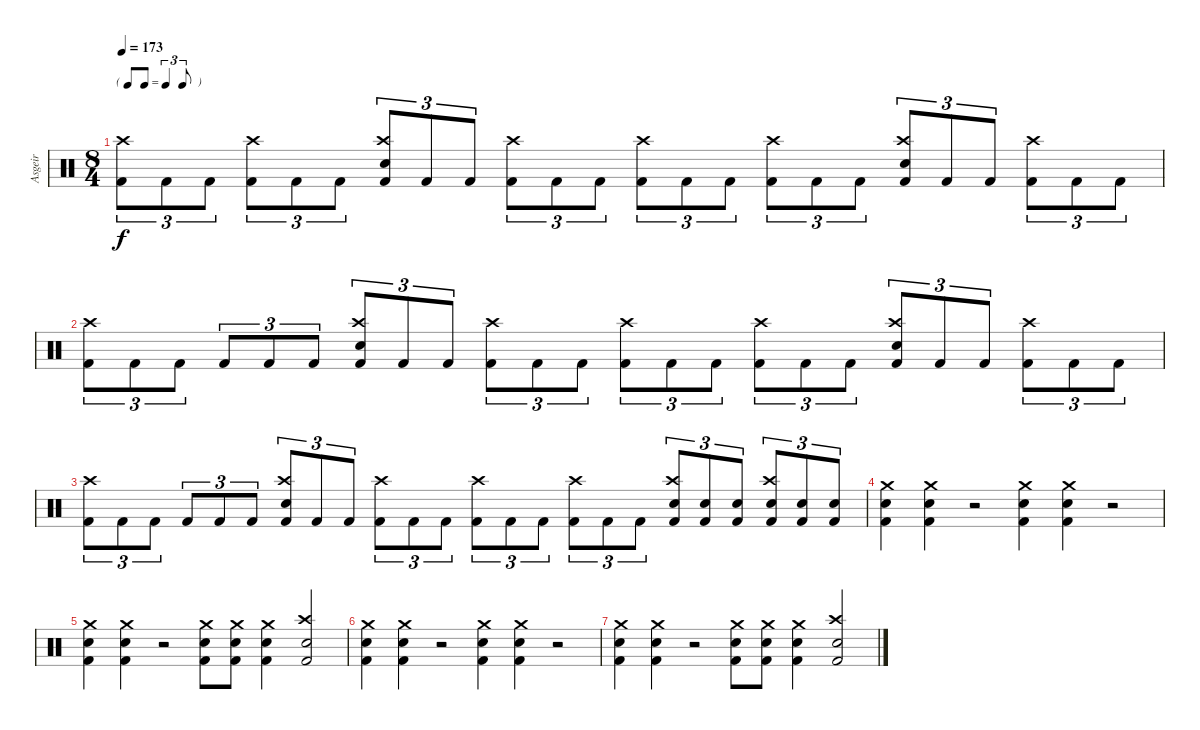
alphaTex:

\track ("Asgeir" "Asgeir") {instrument percussion}
\staff {score}
\articulation defaults
\ts (8 4)
\tf triplet8th
\tempo 173
\clef neutral
\ks c
("Kick (hit) 2" "Crash high (hit)").8{tu (3 2) dy f} "Kick (hit) 2".8{tu (3 2)} "Kick (hit) 2".8{tu (3 2)} ("Kick (hit) 2" "Crash high (hit)").8{tu (3 2)} "Kick (hit) 2".8{tu (3 2)} "Kick (hit) 2".8{tu (3 2)} ("Kick (hit) 2" "Snare (hit) 2" "Crash high (hit)").8{tu (3 2)} "Kick (hit) 2".8{tu (3 2)} "Kick (hit) 2".8{tu (3 2)} ("Kick (hit) 2" "Crash high (hit)").8{tu (3 2)} "Kick (hit) 2".8{tu (3 2)} "Kick (hit) 2".8{tu (3 2)} ("Kick (hit) 2" "Crash high (hit)").8{tu (3 2)} "Kick (hit) 2".8{tu (3 2)} "Kick (hit) 2".8{tu (3 2)} ("Kick (hit) 2" "Crash high (hit)").8{tu (3 2)} "Kick (hit) 2".8{tu (3 2)} "Kick (hit) 2".8{tu (3 2)} ("Kick (hit) 2" "Snare (hit) 2" "Crash high (hit)").8{tu (3 2)} "Kick (hit) 2".8{tu (3 2)} "Kick (hit) 2".8{tu (3 2)} ("Kick (hit) 2" "Crash high (hit)").8{tu (3 2)} "Kick (hit) 2".8{tu (3 2)} "Kick (hit) 2".8{tu (3 2)} |
("Kick (hit) 2" "Crash high (hit)").8{tu (3 2)} "Kick (hit) 2".8{tu (3 2)} "Kick (hit) 2".8{tu (3 2)} "Kick (hit) 2".8{tu (3 2)} "Kick (hit) 2".8{tu (3 2)} "Kick (hit) 2".8{tu (3 2)} ("Kick (hit) 2" "Snare (hit) 2" "Crash high (hit)").8{tu (3 2)} "Kick (hit) 2".8{tu (3 2)} "Kick (hit) 2".8{tu (3 2)} ("Kick (hit) 2" "Crash high (hit)").8{tu (3 2)} "Kick (hit) 2".8{tu (3 2)} "Kick (hit) 2".8{tu (3 2)} ("Kick (hit) 2" "Crash high (hit)").8{tu (3 2)} "Kick (hit) 2".8{tu (3 2)} "Kick (hit) 2".8{tu (3 2)} ("Kick (hit) 2" "Crash high (hit)").8{tu (3 2)} "Kick (hit) 2".8{tu (3 2)} "Kick (hit) 2".8{tu (3 2)} ("Kick (hit) 2" "Snare (hit) 2" "Crash high (hit)").8{tu (3 2)} "Kick (hit) 2".8{tu (3 2)} "Kick (hit) 2".8{tu (3 2)} ("Kick (hit) 2" "Crash high (hit)").8{tu (3 2)} "Kick (hit) 2".8{tu (3 2)} "Kick (hit) 2".8{tu (3 2)} |
("Kick (hit) 2" "Crash high (hit)").8{tu (3 2)} "Kick (hit) 2".8{tu (3 2)} "Kick (hit) 2".8{tu (3 2)} "Kick (hit) 2".8{tu (3 2)} "Kick (hit) 2".8{tu (3 2)} "Kick (hit) 2".8{tu (3 2)} ("Kick (hit) 2" "Snare (hit) 2" "Crash high (hit)").8{tu (3 2)} "Kick (hit) 2".8{tu (3 2)} "Kick (hit) 2".8{tu (3 2)} ("Kick (hit) 2" "Crash high (hit)").8{tu (3 2)} "Kick (hit) 2".8{tu (3 2)} "Kick (hit) 2".8{tu (3 2)} ("Kick (hit) 2" "Crash high (hit)").8{tu (3 2)} "Kick (hit) 2".8{tu (3 2)} "Kick (hit) 2".8{tu (3 2)} ("Kick (hit) 2" "Crash high (hit)").8{tu (3 2)} "Kick (hit) 2".8{tu (3 2)} "Kick (hit) 2".8{tu (3 2)} ("Kick (hit) 2" "Snare (hit) 2" "Crash high (hit)").8{tu (3 2)} ("Kick (hit) 2" "Snare (hit) 2").8{tu (3 2)} ("Kick (hit) 2" "Snare (hit) 2").8{tu (3 2)} ("Kick (hit) 2" "Snare (hit) 2" "Crash high (hit)").8{tu (3 2)} ("Kick (hit) 2" "Snare (hit) 2").8{tu (3 2)} ("Kick (hit) 2" "Snare (hit) 2").8{tu (3 2)} |
("Kick (hit) 2" "Snare (hit) 2" "Crash medium (hit)").4 ("Kick (hit) 2" "Snare (hit) 2" "Crash medium (hit)").4 r.2 ("Kick (hit) 2" "Snare (hit) 2" "Crash medium (hit)").4 ("Kick (hit) 2" "Snare (hit) 2" "Crash medium (hit)").4 r.2 |
("Kick (hit) 2" "Snare (hit) 2" "Crash medium (hit)").4 ("Kick (hit) 2" "Snare (hit) 2" "Crash medium (hit)").4 r.2 ("Kick (hit) 2" "Snare (hit) 2" "Crash medium (hit)").8 ("Kick (hit) 2" "Snare (hit) 2" "Crash medium (hit)").8 ("Kick (hit) 2" "Snare (hit) 2" "Crash medium (hit)").4 ("Kick (hit) 2" "Snare (hit) 2" "Crash high (hit)").2 |
("Kick (hit) 2" "Snare (hit) 2" "Crash medium (hit)").4 ("Kick (hit) 2" "Snare (hit) 2" "Crash medium (hit)").4 r.2 ("Kick (hit) 2" "Snare (hit) 2" "Crash medium (hit)").4 ("Kick (hit) 2" "Snare (hit) 2" "Crash medium (hit)").4 r.2 |
("Kick (hit) 2" "Snare (hit) 2" "Crash medium (hit)").4 ("Kick (hit) 2" "Snare (hit) 2" "Crash medium (hit)").4 r.2 ("Kick (hit) 2" "Snare (hit) 2" "Crash medium (hit)").8 ("Kick (hit) 2" "Snare (hit) 2" "Crash medium (hit)").8 ("Kick (hit) 2" "Snare (hit) 2" "Crash medium (hit)").4 ("Kick (hit) 2" "Snare (hit) 2" "Crash high (hit)").2
